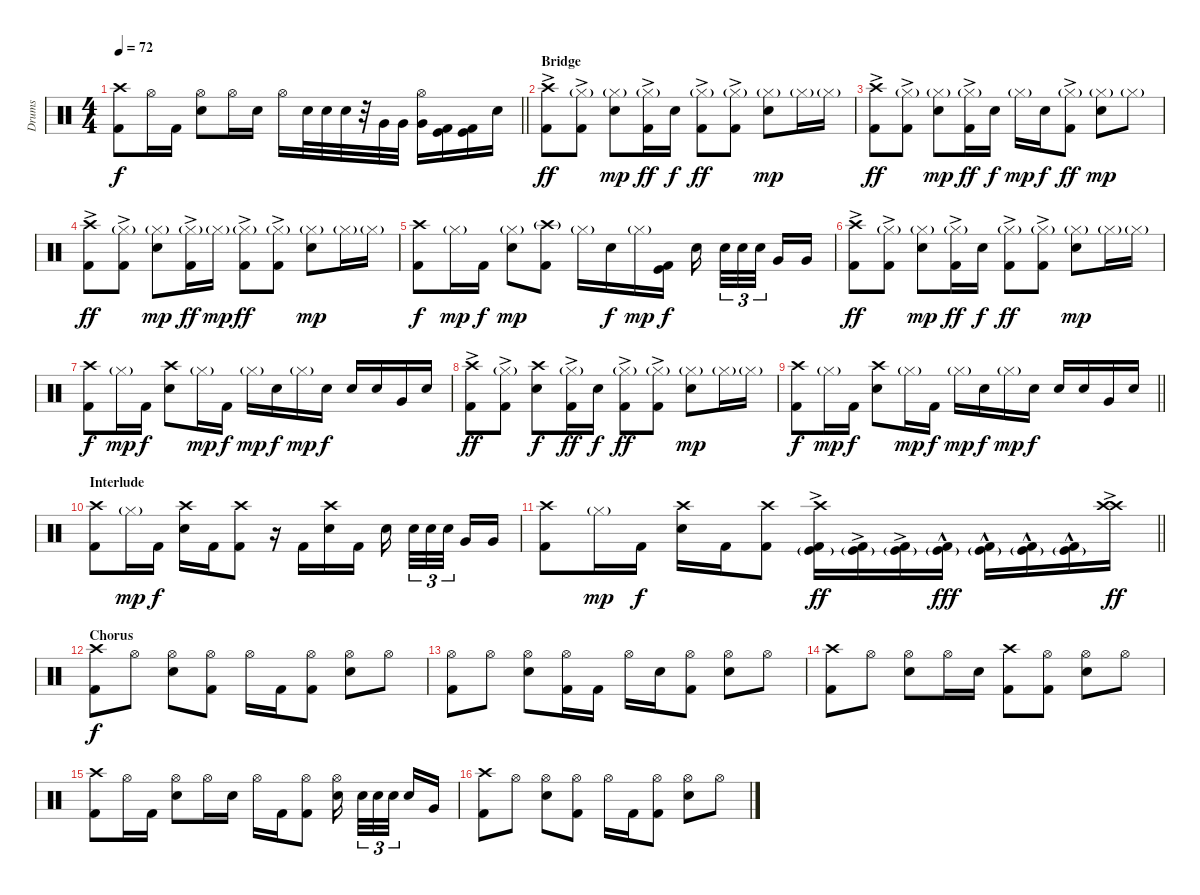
\track ("Drums" "Drums") {instrument percussion}
\staff {score}
\articulation defaults
\ts (4 4)
\tempo 72
\clef neutral
\barLineRight lightlight
\ks c
("Crash high (hit)" "Kick (hit) 2").8{dy f} "Hi-Hat (open)".16 "Kick (hit) 2".16 ("Hi-Hat (open)" "Snare (hit) 2").8 "Hi-Hat (open)".16 "Snare (hit) 2".16 "Hi-Hat (open)".16 "Snare (hit) 2".32 "Snare (hit) 2".32 "Snare (hit) 2".32 r.32 "Very Low Tom (hit)".32 "Very Low Tom (hit)".32 ("Hi-Hat (open)" "Very Low Tom (hit)").16 ("Kick (hit)" "Kick (hit) 2").16 ("Kick (hit)" "Kick (hit) 2").16 "Snare (hit) 2".16 |
\section ("" "Bridge")
("Crash high (hit)" "Kick (hit) 2"{ac}).8{dy ff} ("Hi-Hat (closed)"{g} "Kick (hit) 2"{ac}).8 ("Hi-Hat (closed)"{g} "Snare (hit) 2").8{dy mp} ("Hi-Hat (closed)"{g} "Kick (hit) 2"{ac}).16{dy ff} "Snare (hit) 2".16{dy f} ("Hi-Hat (closed)"{g} "Kick (hit) 2"{ac}).8{dy ff} ("Hi-Hat (closed)"{g} "Kick (hit) 2"{ac}).8 ("Hi-Hat (closed)"{g} "Snare (hit) 2").8{dy mp} "Hi-Hat (closed)"{g}.16 "Hi-Hat (closed)"{g}.16 |
("Crash high (hit)" "Kick (hit) 2"{ac}).8{dy ff} ("Hi-Hat (closed)"{g} "Kick (hit) 2"{ac}).8 ("Hi-Hat (closed)"{g} "Snare (hit) 2").8{dy mp} ("Hi-Hat (closed)"{g} "Kick (hit) 2"{ac}).16{dy ff} "Snare (hit) 2".16{dy f} "Hi-Hat (closed)"{g}.16{dy mp} "Snare (hit) 2".16{dy f} ("Hi-Hat (closed)"{g} "Kick (hit) 2"{ac}).8{dy ff} ("Hi-Hat (closed)"{g} "Snare (hit) 2").8{dy mp} "Hi-Hat (closed)"{g}.8 |
("Crash high (hit)" "Kick (hit) 2"{ac}).8{dy ff} ("Hi-Hat (closed)"{g} "Kick (hit) 2"{ac}).8 ("Hi-Hat (closed)"{g} "Snare (hit) 2").8{dy mp} ("Hi-Hat (closed)"{g} "Kick (hit) 2"{ac}).16{dy ff} "Hi-Hat (closed)"{g}.16{dy mp} ("Hi-Hat (closed)"{g} "Kick (hit) 2"{ac}).8{dy ff} ("Hi-Hat (closed)"{g} "Kick (hit) 2"{ac}).8 ("Hi-Hat (closed)"{g} "Snare (hit) 2").8{dy mp} "Hi-Hat (closed)"{g}.16 "Hi-Hat (closed)"{g}.16 |
("Crash high (hit)" "Kick (hit) 2").8{dy f} "Hi-Hat (closed)"{g}.16{dy mp} "Kick (hit) 2".16{dy f} ("Hi-Hat (closed)"{g} "Snare (hit) 2").8{dy mp} ("Crash high (hit)"{g} "Kick (hit) 2").8 "Hi-Hat (closed)"{g}.16 "Snare (hit) 2".16{dy f} "Hi-Hat (closed)"{g}.16{dy mp} ("Kick (hit)" "Kick (hit) 2").16{dy f} "Snare (hit) 2".16{beam splitsecondary} "Snare (hit) 2".32{tu (3 2)} "Snare (hit) 2".32{tu (3 2)} "Snare (hit) 2".32{tu (3 2) beam splitsecondary} "Very Low Tom (hit)".16 "Very Low Tom (hit)".16 |
("Crash high (hit)" "Kick (hit) 2"{ac}).8{dy ff} ("Hi-Hat (closed)"{g} "Kick (hit) 2"{ac}).8 ("Hi-Hat (closed)"{g} "Snare (hit) 2").8{dy mp} ("Hi-Hat (closed)"{g} "Kick (hit) 2"{ac}).16{dy ff} "Snare (hit) 2".16{dy f} ("Hi-Hat (closed)"{g} "Kick (hit) 2"{ac}).8{dy ff} ("Hi-Hat (closed)"{g} "Kick (hit) 2"{ac}).8 ("Hi-Hat (closed)"{g} "Snare (hit) 2").8{dy mp} "Hi-Hat (closed)"{g}.16 "Hi-Hat (closed)"{g}.16 |
("Crash high (hit)" "Kick (hit) 2").8{dy f} "Hi-Hat (closed)"{g}.16{dy mp} "Kick (hit) 2".16{dy f} ("Crash high (hit)" "Snare (hit) 2").8 "Hi-Hat (closed)"{g}.16{dy mp} "Kick (hit) 2".16{dy f} "Hi-Hat (closed)"{g}.16{dy mp} "Snare (hit) 2".16{dy f} "Hi-Hat (closed)"{g}.16{dy mp} "Snare (hit) 2".16{dy f} "Snare (hit) 2".16 "Snare (hit) 2".16 "Very Low Tom (hit)".16 "Snare (hit) 2".16 |
("Crash high (hit)" "Kick (hit) 2"{ac}).8{dy ff} ("Hi-Hat (closed)"{g} "Kick (hit) 2"{ac}).8 ("Crash high (hit)" "Snare (hit) 2").8{dy f} ("Hi-Hat (closed)"{g} "Kick (hit) 2"{ac}).16{dy ff} "Snare (hit) 2".16{dy f} ("Hi-Hat (closed)"{g} "Kick (hit) 2"{ac}).8{dy ff} ("Hi-Hat (closed)"{g} "Kick (hit) 2"{ac}).8 ("Hi-Hat (closed)"{g} "Snare (hit) 2").8{dy mp} "Hi-Hat (closed)"{g}.16 "Hi-Hat (closed)"{g}.16 |
\barLineRight lightlight
("Crash high (hit)" "Kick (hit) 2").8{dy f} "Hi-Hat (closed)"{g}.16{dy mp} "Kick (hit) 2".16{dy f} ("Crash high (hit)" "Snare (hit) 2").8 "Hi-Hat (closed)"{g}.16{dy mp} "Kick (hit) 2".16{dy f} "Hi-Hat (closed)"{g}.16{dy mp} "Snare (hit) 2".16{dy f} "Hi-Hat (closed)"{g}.16{dy mp} "Snare (hit) 2".16{dy f} "Snare (hit) 2".16 "Snare (hit) 2".16 "Very Low Tom (hit)".16 "Snare (hit) 2".16 |
\section ("" "Interlude")
("Crash high (hit)" "Kick (hit) 2").8 "Hi-Hat (closed)"{g}.16{dy mp} "Kick (hit) 2".16{dy f} ("Crash high (hit)" "Snare (hit) 2").16 "Kick (hit) 2".16 ("Crash high (hit)" "Kick (hit) 2").8 r.16 "Kick (hit) 2".16 ("Crash high (hit)" "Snare (hit) 2").16 "Kick (hit) 2".16 "Snare (hit) 2".16{beam splitsecondary} "Snare (hit) 2".32{tu (3 2)} "Snare (hit) 2".32{tu (3 2)} "Snare (hit) 2".32{tu (3 2) beam splitsecondary} "Very Low Tom (hit)".16 "Very Low Tom (hit)".16 |
\barLineRight lightlight
("Crash high (hit)" "Kick (hit) 2").8 "Hi-Hat (closed)"{g}.16{dy mp} "Kick (hit) 2".16{dy f} ("Crash high (hit)" "Snare (hit) 2").16 "Kick (hit) 2".16 ("Crash high (hit)" "Kick (hit) 2").8 ("Crash high (hit)" "Kick (hit)"{g} "Kick (hit) 2"{ac}).16{dy ff} ("Kick (hit)"{g} "Kick (hit) 2"{ac}).16 ("Kick (hit)"{g} "Kick (hit) 2"{ac}).16 ("Kick (hit)"{g} "Kick (hit) 2"{hac}).16{dy fff} ("Kick (hit)"{g} "Kick (hit) 2"{hac}).16 ("Kick (hit)"{g} "Kick (hit) 2"{hac}).16 ("Kick (hit)"{g} "Kick (hit) 2"{hac}).16 ("Crash high (hit)" "Crash high (hit)"{ac}).16{dy ff} |
\section ("" "Chorus")
("Crash high (hit)" "Kick (hit) 2").8{dy f} "Hi-Hat (open)".8 ("Hi-Hat (open)" "Snare (hit) 2").8 ("Hi-Hat (open)" "Kick (hit) 2").8 "Hi-Hat (open)".16 "Kick (hit) 2".16 ("Hi-Hat (open)" "Kick (hit) 2").8 ("Hi-Hat (open)" "Snare (hit) 2").8 "Hi-Hat (open)".8 |
("Hi-Hat (open)" "Kick (hit) 2").8 "Hi-Hat (open)".8 ("Hi-Hat (open)" "Snare (hit) 2").8 ("Hi-Hat (open)" "Kick (hit) 2").16 "Kick (hit) 2".16 "Hi-Hat (open)".16 "Snare (hit) 2".16 ("Hi-Hat (open)" "Kick (hit) 2").8 ("Hi-Hat (open)" "Snare (hit) 2").8 "Hi-Hat (open)".8 |
("Crash high (hit)" "Kick (hit) 2").8 "Hi-Hat (open)".8 ("Hi-Hat (open)" "Snare (hit) 2").8 "Hi-Hat (open)".16 "Snare (hit) 2".16 ("Crash high (hit)" "Kick (hit) 2").8 ("Hi-Hat (open)" "Kick (hit) 2").8 ("Hi-Hat (open)" "Snare (hit) 2").8 "Hi-Hat (open)".8 |
("Crash high (hit)" "Kick (hit) 2").8 "Hi-Hat (open)".16 "Kick (hit) 2".16 ("Hi-Hat (open)" "Snare (hit) 2").8 "Hi-Hat (open)".16 "Snare (hit) 2".16 "Hi-Hat (open)".16 "Kick (hit) 2".16 ("Hi-Hat (open)" "Kick (hit) 2").8 ("Snare (hit) 2" "Hi-Hat (open)").16{beam splitsecondary} "Snare (hit) 2".32{tu (3 2)} "Snare (hit) 2".32{tu (3 2)} "Snare (hit) 2".32{tu (3 2) beam splitsecondary} "Snare (hit) 2".16 "Very Low Tom (hit)".16 |
("Crash high (hit)" "Kick (hit) 2").8 "Hi-Hat (open)".8 ("Hi-Hat (open)" "Snare (hit) 2").8 ("Hi-Hat (open)" "Kick (hit) 2").8 "Hi-Hat (open)".16 "Kick (hit) 2".16 ("Hi-Hat (open)" "Kick (hit) 2").8 ("Hi-Hat (open)" "Snare (hit) 2").8 "Hi-Hat (open)".8
